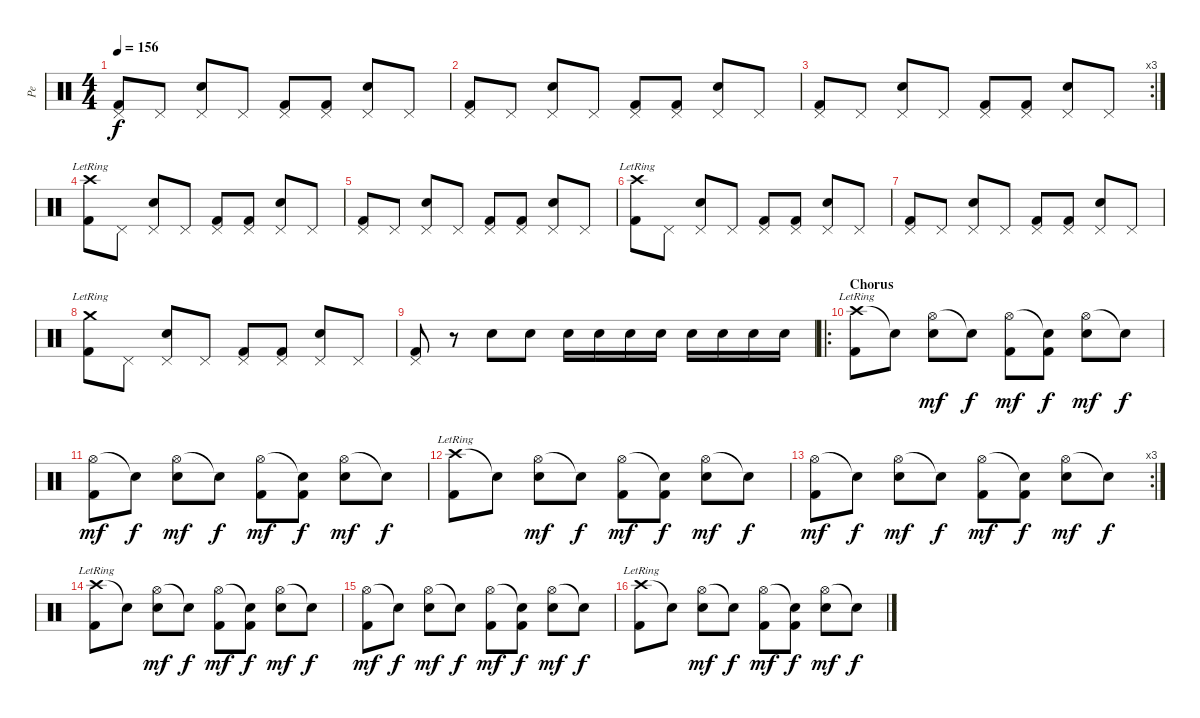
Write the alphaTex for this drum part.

\track ("Pe" "Pe") {instrument percussion}
\staff {score}
\articulation defaults
\ts (4 4)
\tempo 156
\clef neutral
\ks c
("Pedal Hi-Hat (hit)" "Kick (hit) 2").8{dy f} "Pedal Hi-Hat (hit)".8 ("Pedal Hi-Hat (hit)" "Electric Snare (hit)").8 "Pedal Hi-Hat (hit)".8 ("Pedal Hi-Hat (hit)" "Kick (hit) 2").8 ("Pedal Hi-Hat (hit)" "Kick (hit) 2").8 ("Pedal Hi-Hat (hit)" "Electric Snare (hit)").8 "Pedal Hi-Hat (hit)".8 |
("Pedal Hi-Hat (hit)" "Kick (hit) 2").8 "Pedal Hi-Hat (hit)".8 ("Pedal Hi-Hat (hit)" "Electric Snare (hit)").8 "Pedal Hi-Hat (hit)".8 ("Pedal Hi-Hat (hit)" "Kick (hit) 2").8 ("Pedal Hi-Hat (hit)" "Kick (hit) 2").8 ("Pedal Hi-Hat (hit)" "Electric Snare (hit)").8 "Pedal Hi-Hat (hit)".8 |
\rc 3
("Pedal Hi-Hat (hit)" "Kick (hit) 2").8 "Pedal Hi-Hat (hit)".8 ("Pedal Hi-Hat (hit)" "Electric Snare (hit)").8 "Pedal Hi-Hat (hit)".8 ("Pedal Hi-Hat (hit)" "Kick (hit) 2").8 ("Pedal Hi-Hat (hit)" "Kick (hit) 2").8 ("Pedal Hi-Hat (hit)" "Electric Snare (hit)").8 "Pedal Hi-Hat (hit)".8 |
("Crash high (hit)"{lr} "Kick (hit) 2").8 "Pedal Hi-Hat (hit)".8 ("Pedal Hi-Hat (hit)" "Electric Snare (hit)").8 "Pedal Hi-Hat (hit)".8 ("Pedal Hi-Hat (hit)" "Kick (hit) 2").8 ("Pedal Hi-Hat (hit)" "Kick (hit) 2").8 ("Pedal Hi-Hat (hit)" "Electric Snare (hit)").8 "Pedal Hi-Hat (hit)".8 |
("Pedal Hi-Hat (hit)" "Kick (hit) 2").8 "Pedal Hi-Hat (hit)".8 ("Pedal Hi-Hat (hit)" "Electric Snare (hit)").8 "Pedal Hi-Hat (hit)".8 ("Pedal Hi-Hat (hit)" "Kick (hit) 2").8 ("Pedal Hi-Hat (hit)" "Kick (hit) 2").8 ("Pedal Hi-Hat (hit)" "Electric Snare (hit)").8 "Pedal Hi-Hat (hit)".8 |
("Crash high (hit)"{lr} "Kick (hit) 2").8 "Pedal Hi-Hat (hit)".8 ("Pedal Hi-Hat (hit)" "Electric Snare (hit)").8 "Pedal Hi-Hat (hit)".8 ("Pedal Hi-Hat (hit)" "Kick (hit) 2").8 ("Pedal Hi-Hat (hit)" "Kick (hit) 2").8 ("Pedal Hi-Hat (hit)" "Electric Snare (hit)").8 "Pedal Hi-Hat (hit)".8 |
("Pedal Hi-Hat (hit)" "Kick (hit) 2").8 "Pedal Hi-Hat (hit)".8 ("Pedal Hi-Hat (hit)" "Electric Snare (hit)").8 "Pedal Hi-Hat (hit)".8 ("Pedal Hi-Hat (hit)" "Kick (hit) 2").8 ("Pedal Hi-Hat (hit)" "Kick (hit) 2").8 ("Pedal Hi-Hat (hit)" "Electric Snare (hit)").8 "Pedal Hi-Hat (hit)".8 |
("Crash medium (hit)"{lr} "Kick (hit) 2").8 "Pedal Hi-Hat (hit)".8 ("Pedal Hi-Hat (hit)" "Electric Snare (hit)").8 "Pedal Hi-Hat (hit)".8 ("Pedal Hi-Hat (hit)" "Kick (hit) 2").8 ("Pedal Hi-Hat (hit)" "Kick (hit) 2").8 ("Pedal Hi-Hat (hit)" "Electric Snare (hit)").8 "Pedal Hi-Hat (hit)".8 |
("Pedal Hi-Hat (hit)" "Kick (hit) 2").8 r.8 "Electric Snare (hit)".8 "Electric Snare (hit)".8 "Electric Snare (hit)".16 "Electric Snare (hit)".16 "Electric Snare (hit)".16 "Electric Snare (hit)".16 "Electric Snare (hit)".16 "Electric Snare (hit)".16 "Electric Snare (hit)".16 "Electric Snare (hit)".16 |
\ro
\section ("" "Chorus")
("Crash high (hit)"{lr} "Kick (hit) 2").8 "Snare (hit)"{t}.8 ("Hi-Hat (open)" "Electric Snare (hit)").8{dy mf} "Snare (hit)"{t}.8{dy f} ("Hi-Hat (open)" "Kick (hit) 2").8{dy mf} ("Snare (hit)"{t} "Kick (hit) 2").8{dy f} ("Hi-Hat (open)" "Electric Snare (hit)").8{dy mf} "Snare (hit)"{t}.8{dy f} |
("Hi-Hat (open)" "Kick (hit) 2").8{dy mf} "Snare (hit)"{t}.8{dy f} ("Hi-Hat (open)" "Electric Snare (hit)").8{dy mf} "Snare (hit)"{t}.8{dy f} ("Hi-Hat (open)" "Kick (hit) 2").8{dy mf} ("Snare (hit)"{t} "Kick (hit) 2").8{dy f} ("Hi-Hat (open)" "Electric Snare (hit)").8{dy mf} "Snare (hit)"{t}.8{dy f} |
("Crash high (hit)"{lr} "Kick (hit) 2").8 "Snare (hit)"{t}.8 ("Hi-Hat (open)" "Electric Snare (hit)").8{dy mf} "Snare (hit)"{t}.8{dy f} ("Hi-Hat (open)" "Kick (hit) 2").8{dy mf} ("Snare (hit)"{t} "Kick (hit) 2").8{dy f} ("Hi-Hat (open)" "Electric Snare (hit)").8{dy mf} "Snare (hit)"{t}.8{dy f} |
\rc 3
("Hi-Hat (open)" "Kick (hit) 2").8{dy mf} "Snare (hit)"{t}.8{dy f} ("Hi-Hat (open)" "Electric Snare (hit)").8{dy mf} "Snare (hit)"{t}.8{dy f} ("Hi-Hat (open)" "Kick (hit) 2").8{dy mf} ("Snare (hit)"{t} "Kick (hit) 2").8{dy f} ("Hi-Hat (open)" "Electric Snare (hit)").8{dy mf} "Snare (hit)"{t}.8{dy f} |
("Crash high (hit)"{lr} "Kick (hit) 2").8 "Snare (hit)"{t}.8 ("Hi-Hat (open)" "Electric Snare (hit)").8{dy mf} "Snare (hit)"{t}.8{dy f} ("Hi-Hat (open)" "Kick (hit) 2").8{dy mf} ("Snare (hit)"{t} "Kick (hit) 2").8{dy f} ("Hi-Hat (open)" "Electric Snare (hit)").8{dy mf} "Snare (hit)"{t}.8{dy f} |
("Hi-Hat (open)" "Kick (hit) 2").8{dy mf} "Snare (hit)"{t}.8{dy f} ("Hi-Hat (open)" "Electric Snare (hit)").8{dy mf} "Snare (hit)"{t}.8{dy f} ("Hi-Hat (open)" "Kick (hit) 2").8{dy mf} ("Snare (hit)"{t} "Kick (hit) 2").8{dy f} ("Hi-Hat (open)" "Electric Snare (hit)").8{dy mf} "Snare (hit)"{t}.8{dy f} |
("Crash high (hit)"{lr} "Kick (hit) 2").8 "Snare (hit)"{t}.8 ("Hi-Hat (open)" "Electric Snare (hit)").8{dy mf} "Snare (hit)"{t}.8{dy f} ("Hi-Hat (open)" "Kick (hit) 2").8{dy mf} ("Snare (hit)"{t} "Kick (hit) 2").8{dy f} ("Hi-Hat (open)" "Electric Snare (hit)").8{dy mf} "Snare (hit)"{t}.8{dy f}
